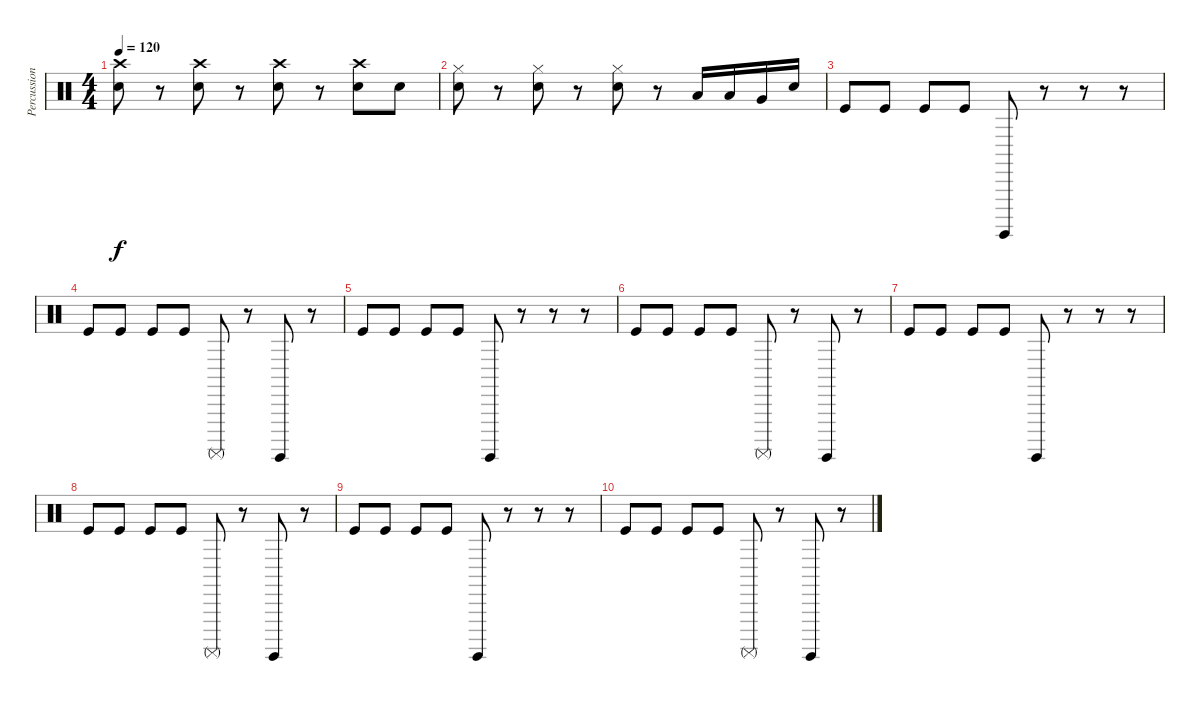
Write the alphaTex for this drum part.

\track ("Percussion" "Percussion") {instrument percussion}
\staff {score}
\articulation defaults
\ts (4 4)
\tempo 120
\clef neutral
\ks c
("Crash high (hit)" "Electric Snare (hit)").8{dy f} r.8 ("Crash high (hit)" "Electric Snare (hit)").8 r.8 ("Crash high (hit)" "Electric Snare (hit)").8 r.8 ("Crash high (hit)" "Electric Snare (hit)").8 "Electric Snare (hit)".8 |
("Hi-Hat (closed)" "Electric Snare (hit)").8 r.8 ("Hi-Hat (closed)" "Electric Snare (hit)").8 r.8 ("Hi-Hat (closed)" "Electric Snare (hit)").8 r.8 "Low Tom (hit)".16 "Low Tom (hit)".16 "Very Low Tom (hit)".16 "Electric Snare (hit)".16 |
"Kick (hit)".8 "Kick (hit)".8 "Kick (hit)".8 "Kick (hit)".8 "Surdo (hit)".8 r.8 r.8 r.8 |
"Kick (hit)".8 "Kick (hit)".8 "Kick (hit)".8 "Kick (hit)".8 "Surdo (mute)".8 r.8 "Surdo (hit)".8 r.8 |
"Kick (hit)".8 "Kick (hit)".8 "Kick (hit)".8 "Kick (hit)".8 "Surdo (hit)".8 r.8 r.8 r.8 |
"Kick (hit)".8 "Kick (hit)".8 "Kick (hit)".8 "Kick (hit)".8 "Surdo (mute)".8 r.8 "Surdo (hit)".8 r.8 |
"Kick (hit)".8 "Kick (hit)".8 "Kick (hit)".8 "Kick (hit)".8 "Surdo (hit)".8 r.8 r.8 r.8 |
"Kick (hit)".8 "Kick (hit)".8 "Kick (hit)".8 "Kick (hit)".8 "Surdo (mute)".8 r.8 "Surdo (hit)".8 r.8 |
"Kick (hit)".8 "Kick (hit)".8 "Kick (hit)".8 "Kick (hit)".8 "Surdo (hit)".8 r.8 r.8 r.8 |
"Kick (hit)".8 "Kick (hit)".8 "Kick (hit)".8 "Kick (hit)".8 "Surdo (mute)".8 r.8 "Surdo (hit)".8 r.8
